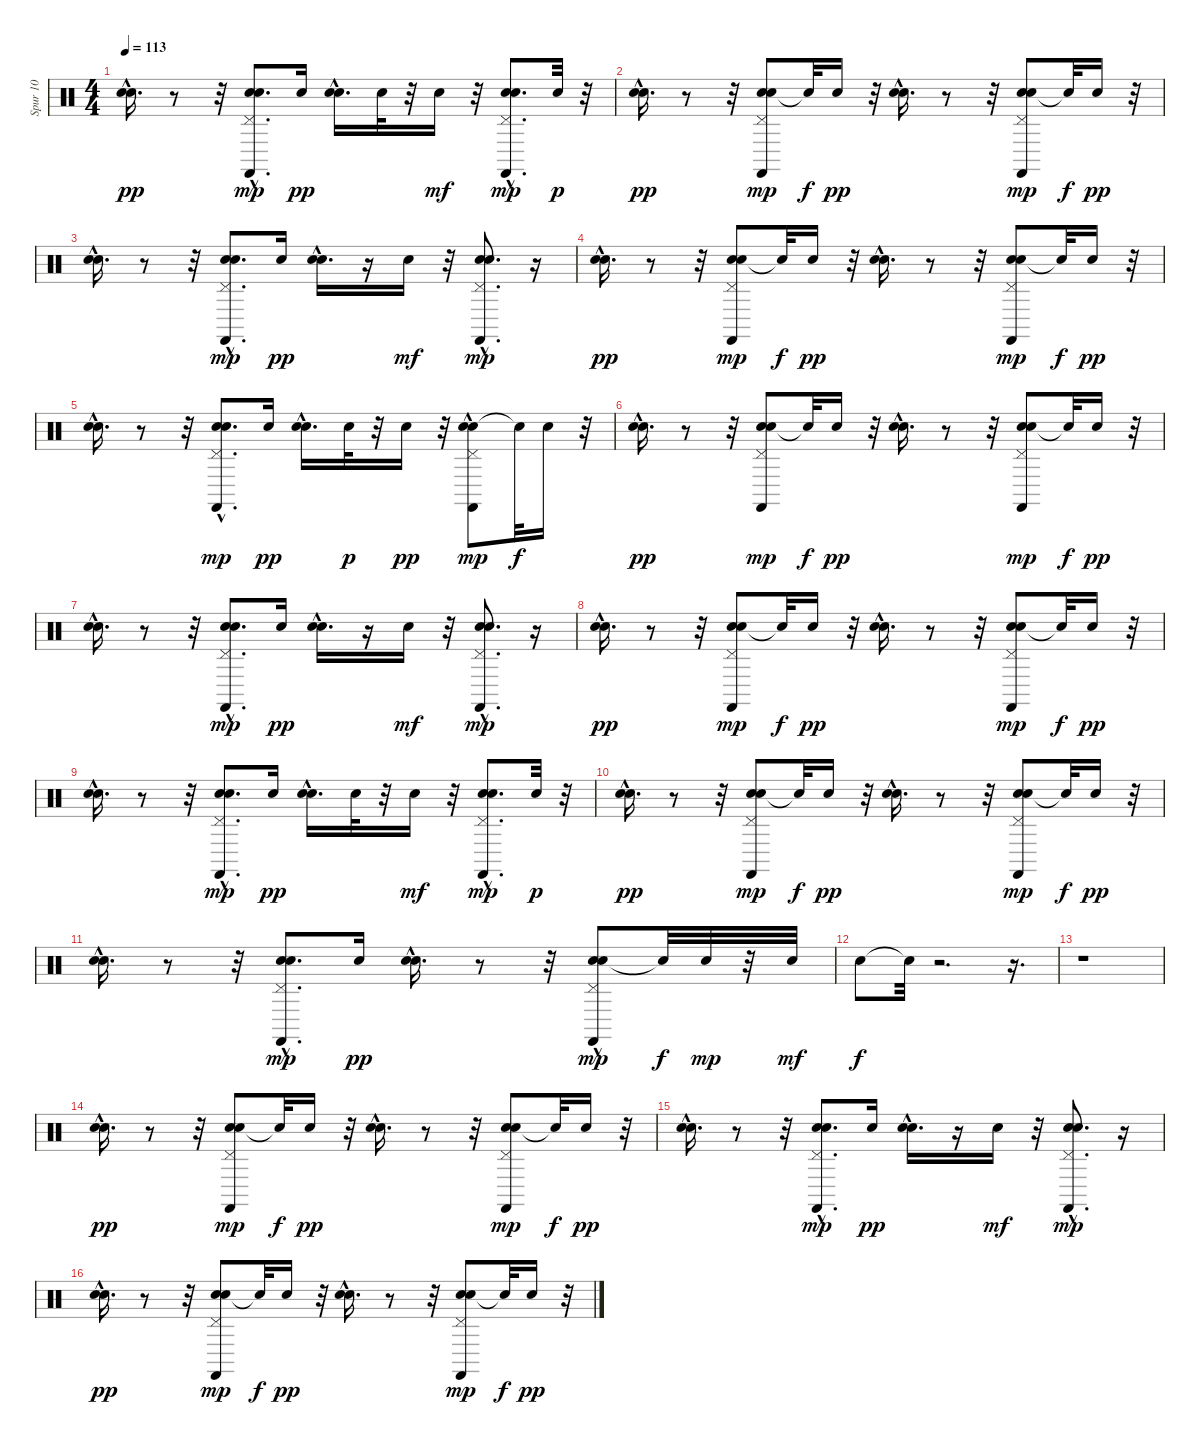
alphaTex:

\track ("Spur 10" "Spur 10") {instrument percussion}
\staff {score}
\articulation defaults
\ts (4 4)
\tempo 113
\clef neutral
\ks c
("Snare (hit) 2"{hac} "Electric Snare (hit)").16{d dy pp} r.8 r.32 ("Snare (hit) 2" "Pedal Hi-Hat (hit)"{hac} "Electric Snare (hit)" "Castanets (hit)").8{d dy mp} "Snare (hit) 2".16{dy pp} ("Snare (hit) 2"{hac} "Electric Snare (hit)").16{d} "Snare (hit) 2".32 r.32 "Snare (hit) 2".16{dy mf} r.32 ("Snare (hit) 2"{hac} "Pedal Hi-Hat (hit)"{hac} "Electric Snare (hit)" "Castanets (hit)").8{d dy mp} "Snare (hit) 2".32{dy p} r.32 |
("Snare (hit) 2"{hac} "Electric Snare (hit)").16{d dy pp} r.8 r.32 ("Snare (hit) 2" "Pedal Hi-Hat (hit)" "Electric Snare (hit)" "Castanets (hit)").8{dy mp} "Snare (hit)"{t}.32{dy f} "Snare (hit) 2".16{dy pp} r.32 ("Snare (hit) 2"{hac} "Electric Snare (hit)").16{d} r.8 r.32 ("Snare (hit) 2" "Pedal Hi-Hat (hit)" "Electric Snare (hit)" "Castanets (hit)").8{dy mp} "Snare (hit)"{t}.32{dy f} "Snare (hit) 2".16{dy pp} r.32 |
("Snare (hit) 2"{hac} "Electric Snare (hit)").16{d} r.8 r.32 ("Snare (hit) 2" "Pedal Hi-Hat (hit)"{hac} "Electric Snare (hit)" "Castanets (hit)").8{d dy mp} "Snare (hit) 2".16{dy pp} ("Snare (hit) 2"{hac} "Electric Snare (hit)").16{d} r.16 "Snare (hit) 2".16{dy mf} r.32 ("Snare (hit) 2"{hac} "Pedal Hi-Hat (hit)"{hac} "Electric Snare (hit)" "Castanets (hit)").8{d dy mp} r.16 |
("Snare (hit) 2"{hac} "Electric Snare (hit)").16{d dy pp} r.8 r.32 ("Snare (hit) 2" "Pedal Hi-Hat (hit)" "Electric Snare (hit)" "Castanets (hit)").8{dy mp} "Snare (hit)"{t}.32{dy f} "Snare (hit) 2".16{dy pp} r.32 ("Snare (hit) 2"{hac} "Electric Snare (hit)").16{d} r.8 r.32 ("Snare (hit) 2" "Pedal Hi-Hat (hit)" "Electric Snare (hit)" "Castanets (hit)").8{dy mp} "Snare (hit)"{t}.32{dy f} "Snare (hit) 2".16{dy pp} r.32 |
("Snare (hit) 2"{hac} "Electric Snare (hit)").16{d} r.8 r.32 ("Snare (hit) 2" "Pedal Hi-Hat (hit)"{hac} "Electric Snare (hit)" "Castanets (hit)").8{d dy mp} "Snare (hit) 2".16{dy pp} ("Snare (hit) 2"{hac} "Electric Snare (hit)").16{d} "Snare (hit) 2".32{dy p} r.32 "Snare (hit) 2".16{dy pp} r.32 ("Hand Clap (hit)"{hac} "Pedal Hi-Hat (hit)" "Electric Snare (hit)" "Castanets (hit)").8{dy mp} "Snare (hit)"{t}.32{dy f} "Hand Clap (hit)".16 r.32 |
("Snare (hit) 2"{hac} "Electric Snare (hit)").16{d dy pp} r.8 r.32 ("Snare (hit) 2" "Pedal Hi-Hat (hit)" "Electric Snare (hit)" "Castanets (hit)").8{dy mp} "Snare (hit)"{t}.32{dy f} "Snare (hit) 2".16{dy pp} r.32 ("Snare (hit) 2"{hac} "Electric Snare (hit)").16{d} r.8 r.32 ("Snare (hit) 2" "Pedal Hi-Hat (hit)" "Electric Snare (hit)" "Castanets (hit)").8{dy mp} "Snare (hit)"{t}.32{dy f} "Snare (hit) 2".16{dy pp} r.32 |
("Snare (hit) 2"{hac} "Electric Snare (hit)").16{d} r.8 r.32 ("Snare (hit) 2" "Pedal Hi-Hat (hit)"{hac} "Electric Snare (hit)" "Castanets (hit)").8{d dy mp} "Snare (hit) 2".16{dy pp} ("Snare (hit) 2"{hac} "Electric Snare (hit)").16{d} r.16 "Snare (hit) 2".16{dy mf} r.32 ("Snare (hit) 2"{hac} "Pedal Hi-Hat (hit)"{hac} "Electric Snare (hit)" "Castanets (hit)").8{d dy mp} r.16 |
("Snare (hit) 2"{hac} "Electric Snare (hit)").16{d dy pp} r.8 r.32 ("Snare (hit) 2" "Pedal Hi-Hat (hit)" "Electric Snare (hit)" "Castanets (hit)").8{dy mp} "Snare (hit)"{t}.32{dy f} "Snare (hit) 2".16{dy pp} r.32 ("Snare (hit) 2"{hac} "Electric Snare (hit)").16{d} r.8 r.32 ("Snare (hit) 2" "Pedal Hi-Hat (hit)" "Electric Snare (hit)" "Castanets (hit)").8{dy mp} "Snare (hit)"{t}.32{dy f} "Snare (hit) 2".16{dy pp} r.32 |
("Snare (hit) 2"{hac} "Electric Snare (hit)").16{d} r.8 r.32 ("Snare (hit) 2" "Pedal Hi-Hat (hit)"{hac} "Electric Snare (hit)" "Castanets (hit)").8{d dy mp} "Snare (hit) 2".16{dy pp} ("Snare (hit) 2"{hac} "Electric Snare (hit)").16{d} "Snare (hit) 2".32 r.32 "Snare (hit) 2".16{dy mf} r.32 ("Snare (hit) 2"{hac} "Pedal Hi-Hat (hit)"{hac} "Electric Snare (hit)" "Castanets (hit)").8{d dy mp} "Snare (hit) 2".32{dy p} r.32 |
("Snare (hit) 2"{hac} "Electric Snare (hit)").16{d dy pp} r.8 r.32 ("Snare (hit) 2" "Pedal Hi-Hat (hit)" "Electric Snare (hit)" "Castanets (hit)").8{dy mp} "Snare (hit)"{t}.32{dy f} "Snare (hit) 2".16{dy pp} r.32 ("Snare (hit) 2"{hac} "Electric Snare (hit)").16{d} r.8 r.32 ("Snare (hit) 2" "Pedal Hi-Hat (hit)" "Electric Snare (hit)" "Castanets (hit)").8{dy mp} "Snare (hit)"{t}.32{dy f} "Snare (hit) 2".16{dy pp} r.32 |
("Snare (hit) 2"{hac} "Electric Snare (hit)").16{d} r.8 r.32 ("Snare (hit) 2" "Pedal Hi-Hat (hit)"{hac} "Electric Snare (hit)" "Castanets (hit)").8{d dy mp} "Snare (hit) 2".16{dy pp} ("Snare (hit) 2"{hac} "Electric Snare (hit)").16{d} r.8 r.32 ("Snare (hit) 2"{hac} "Pedal Hi-Hat (hit)" "Electric Snare (hit)" "Castanets (hit)").8{dy mp} "Snare (hit)"{t}.32{dy f} "Snare (hit) 2".32{dy mp} r.32 "Snare (hit) 2".32{dy mf} |
"Hand Clap (hit)".8{dy f} "Snare (hit)"{t}.32 r.2{d} r.16{d} |
r.1 |
("Snare (hit) 2"{hac} "Electric Snare (hit)").16{d dy pp} r.8 r.32 ("Snare (hit) 2" "Pedal Hi-Hat (hit)" "Electric Snare (hit)" "Castanets (hit)").8{dy mp} "Snare (hit)"{t}.32{dy f} "Snare (hit) 2".16{dy pp} r.32 ("Snare (hit) 2"{hac} "Electric Snare (hit)").16{d} r.8 r.32 ("Snare (hit) 2" "Pedal Hi-Hat (hit)" "Electric Snare (hit)" "Castanets (hit)").8{dy mp} "Snare (hit)"{t}.32{dy f} "Snare (hit) 2".16{dy pp} r.32 |
("Snare (hit) 2"{hac} "Electric Snare (hit)").16{d} r.8 r.32 ("Snare (hit) 2" "Pedal Hi-Hat (hit)"{hac} "Electric Snare (hit)" "Castanets (hit)").8{d dy mp} "Snare (hit) 2".16{dy pp} ("Snare (hit) 2"{hac} "Electric Snare (hit)").16{d} r.16 "Snare (hit) 2".16{dy mf} r.32 ("Snare (hit) 2"{hac} "Pedal Hi-Hat (hit)"{hac} "Electric Snare (hit)" "Castanets (hit)").8{d dy mp} r.16 |
("Snare (hit) 2"{hac} "Electric Snare (hit)").16{d dy pp} r.8 r.32 ("Snare (hit) 2" "Pedal Hi-Hat (hit)" "Electric Snare (hit)" "Castanets (hit)").8{dy mp} "Snare (hit)"{t}.32{dy f} "Snare (hit) 2".16{dy pp} r.32 ("Snare (hit) 2"{hac} "Electric Snare (hit)").16{d} r.8 r.32 ("Snare (hit) 2" "Pedal Hi-Hat (hit)" "Electric Snare (hit)" "Castanets (hit)").8{dy mp} "Snare (hit)"{t}.32{dy f} "Snare (hit) 2".16{dy pp} r.32
